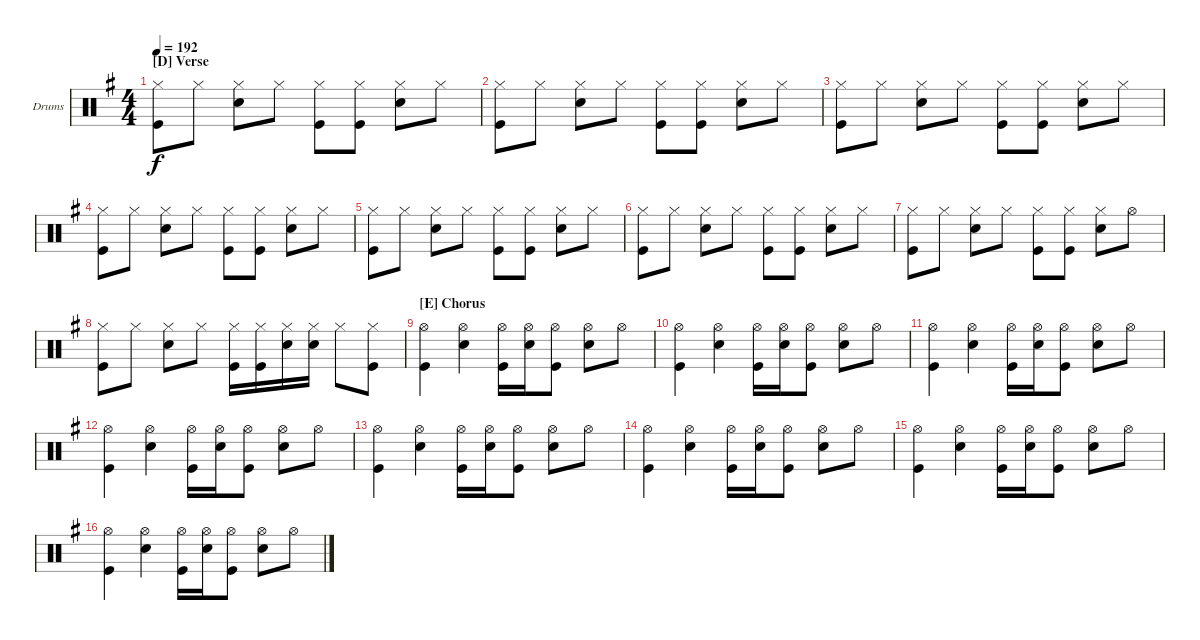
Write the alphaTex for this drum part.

\defaultSystemsLayout 4
\bracketExtendMode groupsimilarinstruments
\firstSystemTrackNameOrientation horizontal
\otherSystemsTrackNameOrientation horizontal
\track ("Drumkit" "Drums") {instrument percussion}
\staff {score}
\articulation defaults
\ts (4 4)
\section ("D" "Verse")
\tempo 192
\clef neutral
\scale
1.04288
\ks g
("Hi-Hat (closed)" "Kick (hit)").8{dy f} "Hi-Hat (closed)".8 ("Hi-Hat (closed)" "Snare (hit) 2").8 "Hi-Hat (closed)".8 ("Hi-Hat (closed)" "Kick (hit)").8 ("Hi-Hat (closed)" "Kick (hit)").8 ("Hi-Hat (closed)" "Snare (hit) 2").8 "Hi-Hat (closed)".8 |
\scale
0.957125 ("Hi-Hat (closed)" "Kick (hit)").8 "Hi-Hat (closed)".8 ("Hi-Hat (closed)" "Snare (hit) 2").8 "Hi-Hat (closed)".8 ("Hi-Hat (closed)" "Kick (hit)").8 ("Hi-Hat (closed)" "Kick (hit)").8 ("Hi-Hat (closed)" "Snare (hit) 2").8 "Hi-Hat (closed)".8 |
\scale
1.04288 ("Hi-Hat (closed)" "Kick (hit)").8 "Hi-Hat (closed)".8 ("Hi-Hat (closed)" "Snare (hit) 2").8 "Hi-Hat (closed)".8 ("Hi-Hat (closed)" "Kick (hit)").8 ("Hi-Hat (closed)" "Kick (hit)").8 ("Hi-Hat (closed)" "Snare (hit) 2").8 "Hi-Hat (closed)".8 |
\scale
0.957125 ("Hi-Hat (closed)" "Kick (hit)").8 "Hi-Hat (closed)".8 ("Hi-Hat (closed)" "Snare (hit) 2").8 "Hi-Hat (closed)".8 ("Hi-Hat (closed)" "Kick (hit)").8 ("Hi-Hat (closed)" "Kick (hit)").8 ("Hi-Hat (closed)" "Snare (hit) 2").8 "Hi-Hat (closed)".8 |
\scale
1.04288 ("Hi-Hat (closed)" "Kick (hit)").8 "Hi-Hat (closed)".8 ("Hi-Hat (closed)" "Snare (hit) 2").8 "Hi-Hat (closed)".8 ("Hi-Hat (closed)" "Kick (hit)").8 ("Hi-Hat (closed)" "Kick (hit)").8 ("Hi-Hat (closed)" "Snare (hit) 2").8 "Hi-Hat (closed)".8 |
\scale
0.957125 ("Hi-Hat (closed)" "Kick (hit)").8 "Hi-Hat (closed)".8 ("Hi-Hat (closed)" "Snare (hit) 2").8 "Hi-Hat (closed)".8 ("Hi-Hat (closed)" "Kick (hit)").8 ("Hi-Hat (closed)" "Kick (hit)").8 ("Hi-Hat (closed)" "Snare (hit) 2").8 "Hi-Hat (closed)".8 |
\scale
1.04288 ("Hi-Hat (closed)" "Kick (hit)").8 "Hi-Hat (closed)".8 ("Hi-Hat (closed)" "Snare (hit) 2").8 "Hi-Hat (closed)".8 ("Hi-Hat (closed)" "Kick (hit)").8 ("Hi-Hat (closed)" "Kick (hit)").8 ("Hi-Hat (closed)" "Snare (hit) 2").8 "Hi-Hat (open)".8 |
\scale
0.957125 ("Hi-Hat (closed)" "Kick (hit)").8 "Hi-Hat (closed)".8 ("Hi-Hat (closed)" "Snare (hit) 2").8 "Hi-Hat (closed)".8 ("Hi-Hat (closed)" "Kick (hit)").16 ("Hi-Hat (closed)" "Kick (hit)").16 ("Hi-Hat (closed)" "Snare (hit) 2").16 ("Hi-Hat (closed)" "Snare (hit) 2").16 "Hi-Hat (closed)".8 ("Hi-Hat (closed)" "Kick (hit)").8 |
\section ("E" "Chorus")
\scale
1.04288 ("Hi-Hat (open)" "Kick (hit)").4 ("Hi-Hat (open)" "Snare (hit) 2").4 ("Hi-Hat (open)" "Kick (hit)").16 ("Hi-Hat (open)" "Snare (hit) 2").16 ("Hi-Hat (open)" "Kick (hit)").8 ("Hi-Hat (open)" "Snare (hit) 2").8 "Hi-Hat (open)".8 |
\scale
0.957125 ("Hi-Hat (open)" "Kick (hit)").4 ("Hi-Hat (open)" "Snare (hit) 2").4 ("Hi-Hat (open)" "Kick (hit)").16 ("Hi-Hat (open)" "Snare (hit) 2").16 ("Hi-Hat (open)" "Kick (hit)").8 ("Hi-Hat (open)" "Snare (hit) 2").8 "Hi-Hat (open)".8 |
\scale
1.04288 ("Hi-Hat (open)" "Kick (hit)").4 ("Hi-Hat (open)" "Snare (hit) 2").4 ("Hi-Hat (open)" "Kick (hit)").16 ("Hi-Hat (open)" "Snare (hit) 2").16 ("Hi-Hat (open)" "Kick (hit)").8 ("Hi-Hat (open)" "Snare (hit) 2").8 "Hi-Hat (open)".8 |
\scale
0.957125 ("Hi-Hat (open)" "Kick (hit)").4 ("Hi-Hat (open)" "Snare (hit) 2").4 ("Hi-Hat (open)" "Kick (hit)").16 ("Hi-Hat (open)" "Snare (hit) 2").16 ("Hi-Hat (open)" "Kick (hit)").8 ("Hi-Hat (open)" "Snare (hit) 2").8 "Hi-Hat (open)".8 |
\scale
1.04288 ("Hi-Hat (open)" "Kick (hit)").4 ("Hi-Hat (open)" "Snare (hit) 2").4 ("Hi-Hat (open)" "Kick (hit)").16 ("Hi-Hat (open)" "Snare (hit) 2").16 ("Hi-Hat (open)" "Kick (hit)").8 ("Hi-Hat (open)" "Snare (hit) 2").8 "Hi-Hat (open)".8 |
\scale
0.957125 ("Hi-Hat (open)" "Kick (hit)").4 ("Hi-Hat (open)" "Snare (hit) 2").4 ("Hi-Hat (open)" "Kick (hit)").16 ("Hi-Hat (open)" "Snare (hit) 2").16 ("Hi-Hat (open)" "Kick (hit)").8 ("Hi-Hat (open)" "Snare (hit) 2").8 "Hi-Hat (open)".8 |
\scale
1.04288 ("Hi-Hat (open)" "Kick (hit)").4 ("Hi-Hat (open)" "Snare (hit) 2").4 ("Hi-Hat (open)" "Kick (hit)").16 ("Hi-Hat (open)" "Snare (hit) 2").16 ("Hi-Hat (open)" "Kick (hit)").8 ("Hi-Hat (open)" "Snare (hit) 2").8 "Hi-Hat (open)".8 |
\scale
0.957125 ("Hi-Hat (open)" "Kick (hit)").4 ("Hi-Hat (open)" "Snare (hit) 2").4 ("Hi-Hat (open)" "Kick (hit)").16 ("Hi-Hat (open)" "Snare (hit) 2").16 ("Hi-Hat (open)" "Kick (hit)").8 ("Hi-Hat (open)" "Snare (hit) 2").8 "Hi-Hat (open)".8
